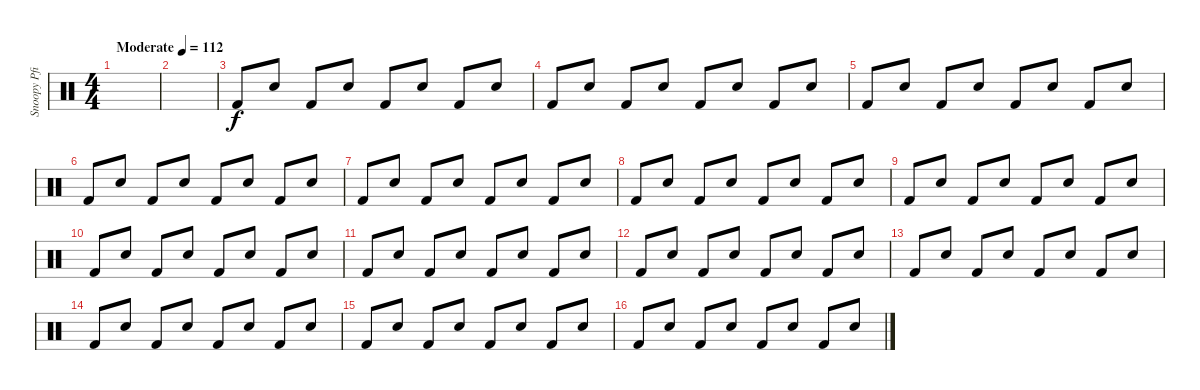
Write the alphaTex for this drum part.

\track ("Snoopy Pfisterer (percussion)" "Snoopy Pfi") {instrument percussion}
\staff {score}
\articulation defaults
\ts (4 4)
\tempo (112 "Moderate")
\clef neutral
\ks c
|
|
"Kick (hit) 2".8 "Snare (hit) 2".8 "Kick (hit) 2".8 "Snare (hit) 2".8 "Kick (hit) 2".8 "Snare (hit) 2".8 "Kick (hit) 2".8 "Snare (hit) 2".8 |
"Kick (hit) 2".8 "Snare (hit) 2".8 "Kick (hit) 2".8 "Snare (hit) 2".8 "Kick (hit) 2".8 "Snare (hit) 2".8 "Kick (hit) 2".8 "Snare (hit) 2".8 |
"Kick (hit) 2".8 "Snare (hit) 2".8 "Kick (hit) 2".8 "Snare (hit) 2".8 "Kick (hit) 2".8 "Snare (hit) 2".8 "Kick (hit) 2".8 "Snare (hit) 2".8 |
"Kick (hit) 2".8 "Snare (hit) 2".8 "Kick (hit) 2".8 "Snare (hit) 2".8 "Kick (hit) 2".8 "Snare (hit) 2".8 "Kick (hit) 2".8 "Snare (hit) 2".8 |
"Kick (hit) 2".8 "Snare (hit) 2".8 "Kick (hit) 2".8 "Snare (hit) 2".8 "Kick (hit) 2".8 "Snare (hit) 2".8 "Kick (hit) 2".8 "Snare (hit) 2".8 |
"Kick (hit) 2".8 "Snare (hit) 2".8 "Kick (hit) 2".8 "Snare (hit) 2".8 "Kick (hit) 2".8 "Snare (hit) 2".8 "Kick (hit) 2".8 "Snare (hit) 2".8 |
"Kick (hit) 2".8 "Snare (hit) 2".8 "Kick (hit) 2".8 "Snare (hit) 2".8 "Kick (hit) 2".8 "Snare (hit) 2".8 "Kick (hit) 2".8 "Snare (hit) 2".8 |
"Kick (hit) 2".8 "Snare (hit) 2".8 "Kick (hit) 2".8 "Snare (hit) 2".8 "Kick (hit) 2".8 "Snare (hit) 2".8 "Kick (hit) 2".8 "Snare (hit) 2".8 |
"Kick (hit) 2".8 "Snare (hit) 2".8 "Kick (hit) 2".8 "Snare (hit) 2".8 "Kick (hit) 2".8 "Snare (hit) 2".8 "Kick (hit) 2".8 "Snare (hit) 2".8 |
"Kick (hit) 2".8 "Snare (hit) 2".8 "Kick (hit) 2".8 "Snare (hit) 2".8 "Kick (hit) 2".8 "Snare (hit) 2".8 "Kick (hit) 2".8 "Snare (hit) 2".8 |
"Kick (hit) 2".8 "Snare (hit) 2".8 "Kick (hit) 2".8 "Snare (hit) 2".8 "Kick (hit) 2".8 "Snare (hit) 2".8 "Kick (hit) 2".8 "Snare (hit) 2".8 |
"Kick (hit) 2".8 "Snare (hit) 2".8 "Kick (hit) 2".8 "Snare (hit) 2".8 "Kick (hit) 2".8 "Snare (hit) 2".8 "Kick (hit) 2".8 "Snare (hit) 2".8 |
"Kick (hit) 2".8 "Snare (hit) 2".8 "Kick (hit) 2".8 "Snare (hit) 2".8 "Kick (hit) 2".8 "Snare (hit) 2".8 "Kick (hit) 2".8 "Snare (hit) 2".8 |
"Kick (hit) 2".8 "Snare (hit) 2".8 "Kick (hit) 2".8 "Snare (hit) 2".8 "Kick (hit) 2".8 "Snare (hit) 2".8 "Kick (hit) 2".8 "Snare (hit) 2".8
